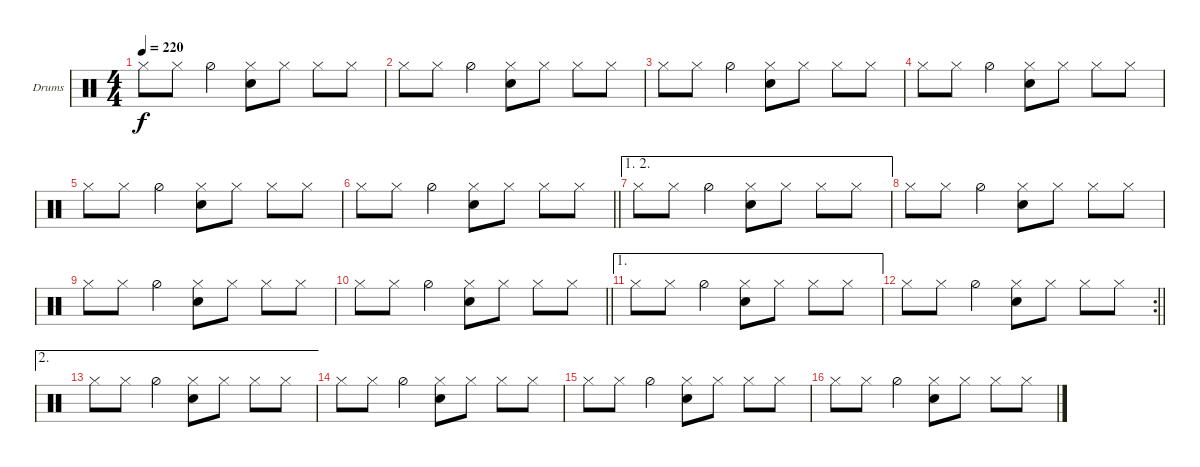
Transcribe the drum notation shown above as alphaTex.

\bracketExtendMode groupsimilarinstruments
\firstSystemTrackNameOrientation horizontal
\otherSystemsTrackNameOrientation horizontal
\track ("Drums" "Drums") {instrument percussion}
\staff {score}
\articulation defaults
\ts (4 4)
\tempo 220
\clef neutral
\scale
0.333333
\ks c "Hi-Hat (closed)".8{dy f} "Hi-Hat (closed)".8 "Hi-Hat (half)".4
("Hi-Hat (closed)" "Snare (hit) 2").8 "Hi-Hat (closed)".8 "Hi-Hat (closed)".8 "Hi-Hat (closed)".8 |
\scale
0.333333 "Hi-Hat (closed)".8 "Hi-Hat (closed)".8 "Hi-Hat (half)".4 ("Hi-Hat (closed)" "Snare (hit) 2").8 "Hi-Hat (closed)".8 "Hi-Hat (closed)".8 "Hi-Hat (closed)".8 |
\scale
0.333333 "Hi-Hat (closed)".8 "Hi-Hat (closed)".8 "Hi-Hat (half)".4 ("Hi-Hat (closed)" "Snare (hit) 2").8 "Hi-Hat (closed)".8 "Hi-Hat (closed)".8 "Hi-Hat (closed)".8 |
\scale
0.333333 "Hi-Hat (closed)".8 "Hi-Hat (closed)".8 "Hi-Hat (half)".4 ("Hi-Hat (closed)" "Snare (hit) 2").8 "Hi-Hat (closed)".8 "Hi-Hat (closed)".8 "Hi-Hat (closed)".8 |
\scale
0.333333 "Hi-Hat (closed)".8 "Hi-Hat (closed)".8 "Hi-Hat (half)".4 ("Hi-Hat (closed)" "Snare (hit) 2").8 "Hi-Hat (closed)".8 "Hi-Hat (closed)".8 "Hi-Hat (closed)".8 |
\scale
0.333333
\barLineRight lightlight "Hi-Hat (closed)".8 "Hi-Hat (closed)".8 "Hi-Hat (half)".4
("Hi-Hat (closed)" "Snare (hit) 2").8 "Hi-Hat (closed)".8 "Hi-Hat (closed)".8 "Hi-Hat (closed)".8 |
\ae (1 2)
\scale
0.333333 "Hi-Hat (closed)".8 "Hi-Hat (closed)".8 "Hi-Hat (half)".4 ("Hi-Hat (closed)" "Snare (hit) 2").8 "Hi-Hat (closed)".8 "Hi-Hat (closed)".8 "Hi-Hat (closed)".8 |
\scale
0.333333 "Hi-Hat (closed)".8 "Hi-Hat (closed)".8 "Hi-Hat (half)".4 ("Hi-Hat (closed)" "Snare (hit) 2").8 "Hi-Hat (closed)".8 "Hi-Hat (closed)".8 "Hi-Hat (closed)".8 |
\scale
0.333333 "Hi-Hat (closed)".8 "Hi-Hat (closed)".8 "Hi-Hat (half)".4 ("Hi-Hat (closed)" "Snare (hit) 2").8 "Hi-Hat (closed)".8 "Hi-Hat (closed)".8 "Hi-Hat (closed)".8 |
\scale
0.322034
\barLineRight lightlight "Hi-Hat (closed)".8 "Hi-Hat (closed)".8 "Hi-Hat (half)".4
("Hi-Hat (closed)" "Snare (hit) 2").8 "Hi-Hat (closed)".8 "Hi-Hat (closed)".8 "Hi-Hat (closed)".8 |
\ae 1
\scale
0.322034 "Hi-Hat (closed)".8 "Hi-Hat (closed)".8 "Hi-Hat (half)".4 ("Hi-Hat (closed)" "Snare (hit) 2").8 "Hi-Hat (closed)".8 "Hi-Hat (closed)".8 "Hi-Hat (closed)".8 |
\rc 2
\scale
0.355932
\barLineRight lightlight "Hi-Hat (closed)".8 "Hi-Hat (closed)".8 "Hi-Hat (half)".4
("Hi-Hat (closed)" "Snare (hit) 2").8 "Hi-Hat (closed)".8 "Hi-Hat (closed)".8 "Hi-Hat (closed)".8 |
\ae 2
\scale
0.333333 "Hi-Hat (closed)".8 "Hi-Hat (closed)".8 "Hi-Hat (half)".4 ("Hi-Hat (closed)" "Snare (hit) 2").8 "Hi-Hat (closed)".8 "Hi-Hat (closed)".8 "Hi-Hat (closed)".8 |
\scale
0.333333 "Hi-Hat (closed)".8 "Hi-Hat (closed)".8 "Hi-Hat (half)".4 ("Hi-Hat (closed)" "Snare (hit) 2").8 "Hi-Hat (closed)".8 "Hi-Hat (closed)".8 "Hi-Hat (closed)".8 |
\scale
0.333333 "Hi-Hat (closed)".8 "Hi-Hat (closed)".8 "Hi-Hat (half)".4 ("Hi-Hat (closed)" "Snare (hit) 2").8 "Hi-Hat (closed)".8 "Hi-Hat (closed)".8 "Hi-Hat (closed)".8 |
\scale
0.333333 "Hi-Hat (closed)".8 "Hi-Hat (closed)".8 "Hi-Hat (half)".4 ("Hi-Hat (closed)" "Snare (hit) 2").8 "Hi-Hat (closed)".8 "Hi-Hat (closed)".8 "Hi-Hat (closed)".8
